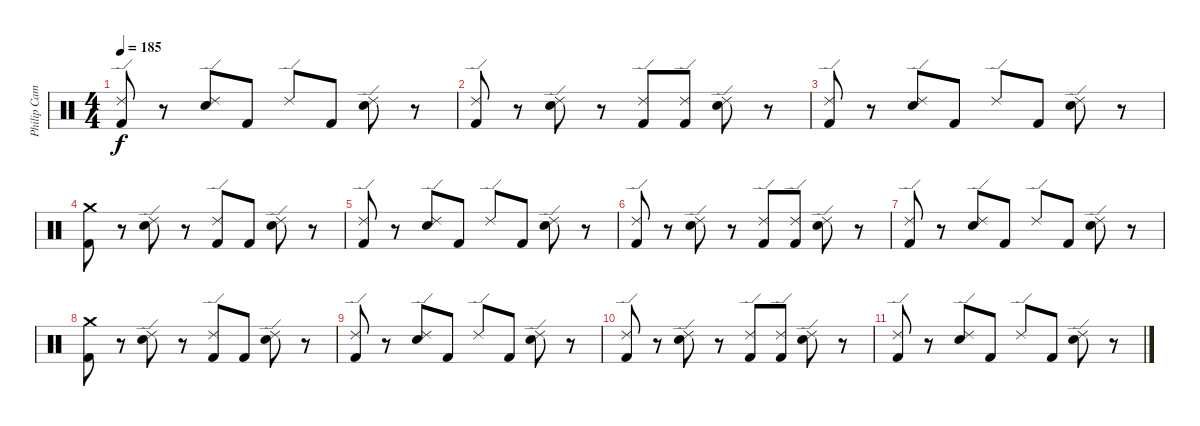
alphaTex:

\track ("Philip Campbell" "Philip Cam") {instrument percussion}
\staff {score}
\articulation defaults
\ts (4 4)
\tempo 185
\clef neutral
\ks c
("Ride (edge) 2" "Kick (hit) 2").8{dy f} r.8 ("Ride (edge) 2" "Electric Snare (hit)").8 "Kick (hit) 2".8 "Ride (edge) 2".8 "Kick (hit) 2".8 ("Ride (edge) 2" "Electric Snare (hit)").8 r.8 |
("Ride (edge) 2" "Kick (hit) 2").8 r.8 ("Ride (edge) 2" "Electric Snare (hit)").8 r.8 ("Ride (edge) 2" "Kick (hit) 2").8 ("Ride (edge) 2" "Kick (hit) 2").8 ("Ride (edge) 2" "Electric Snare (hit)").8 r.8 |
("Ride (edge) 2" "Kick (hit) 2").8 r.8 ("Ride (edge) 2" "Electric Snare (hit)").8 "Kick (hit) 2".8 "Ride (edge) 2".8 "Kick (hit) 2".8 ("Ride (edge) 2" "Electric Snare (hit)").8 r.8 |
("Crash medium (hit)" "Kick (hit) 2").8 r.8 ("Ride (edge) 2" "Electric Snare (hit)").8 r.8 ("Ride (edge) 2" "Kick (hit) 2").8 "Kick (hit) 2".8 ("Ride (edge) 2" "Electric Snare (hit)").8 r.8 |
("Ride (edge) 2" "Kick (hit) 2").8 r.8 ("Ride (edge) 2" "Electric Snare (hit)").8 "Kick (hit) 2".8 "Ride (edge) 2".8 "Kick (hit) 2".8 ("Ride (edge) 2" "Electric Snare (hit)").8 r.8 |
("Ride (edge) 2" "Kick (hit) 2").8 r.8 ("Ride (edge) 2" "Electric Snare (hit)").8 r.8 ("Ride (edge) 2" "Kick (hit) 2").8 ("Ride (edge) 2" "Kick (hit) 2").8 ("Ride (edge) 2" "Electric Snare (hit)").8 r.8 |
("Ride (edge) 2" "Kick (hit) 2").8 r.8 ("Ride (edge) 2" "Electric Snare (hit)").8 "Kick (hit) 2".8 "Ride (edge) 2".8 "Kick (hit) 2".8 ("Ride (edge) 2" "Electric Snare (hit)").8 r.8 |
("Crash medium (hit)" "Kick (hit) 2").8 r.8 ("Ride (edge) 2" "Electric Snare (hit)").8 r.8 ("Ride (edge) 2" "Kick (hit) 2").8 "Kick (hit) 2".8 ("Ride (edge) 2" "Electric Snare (hit)").8 r.8 |
("Ride (edge) 2" "Kick (hit) 2").8 r.8 ("Ride (edge) 2" "Electric Snare (hit)").8 "Kick (hit) 2".8 "Ride (edge) 2".8 "Kick (hit) 2".8 ("Ride (edge) 2" "Electric Snare (hit)").8 r.8 |
("Ride (edge) 2" "Kick (hit) 2").8 r.8 ("Ride (edge) 2" "Electric Snare (hit)").8 r.8 ("Ride (edge) 2" "Kick (hit) 2").8 ("Ride (edge) 2" "Kick (hit) 2").8 ("Ride (edge) 2" "Electric Snare (hit)").8 r.8 |
("Ride (edge) 2" "Kick (hit) 2").8 r.8 ("Ride (edge) 2" "Electric Snare (hit)").8 "Kick (hit) 2".8 "Ride (edge) 2".8 "Kick (hit) 2".8 ("Ride (edge) 2" "Electric Snare (hit)").8 r.8
